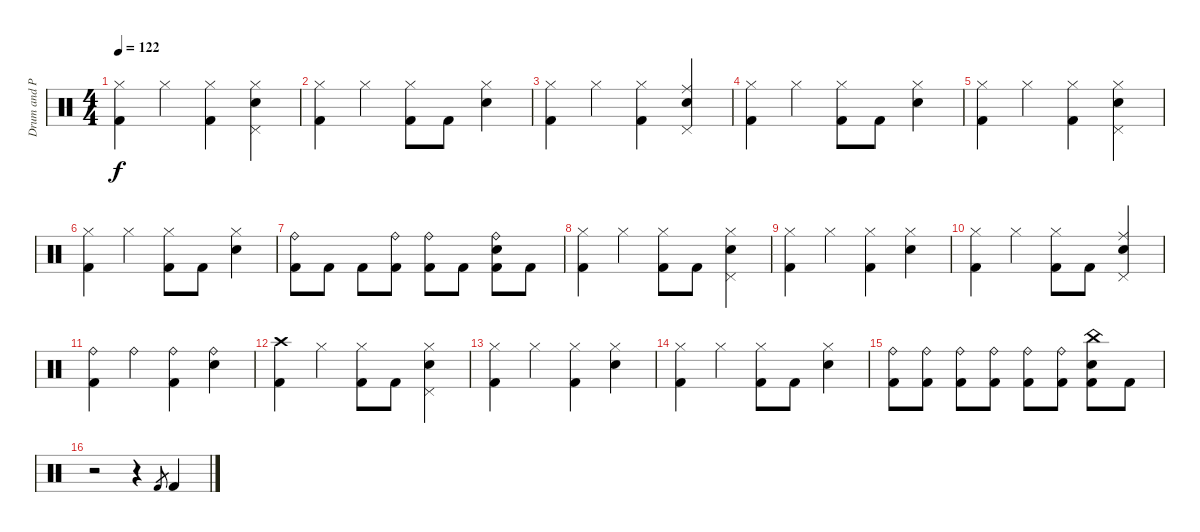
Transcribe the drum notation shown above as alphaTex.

\track ("Drum and Persscusian" "Drum and P") {instrument percussion}
\staff {score}
\articulation defaults
\ts (4 4)
\tempo 122
\clef neutral
\ks c
("Hi-Hat (closed)" "Kick (hit) 2").4{dy f} "Hi-Hat (closed)".4 ("Hi-Hat (closed)" "Kick (hit) 2").4 ("Hi-Hat (closed)" "Pedal Hi-Hat (hit)" "Snare (hit) 2").4 |
("Hi-Hat (closed)" "Kick (hit) 2").4 "Hi-Hat (closed)".4 ("Hi-Hat (closed)" "Kick (hit) 2").8 "Kick (hit) 2".8 ("Hi-Hat (closed)" "Snare (hit) 2").4 |
("Hi-Hat (closed)" "Kick (hit) 2").4 "Hi-Hat (closed)".4 ("Hi-Hat (closed)" "Kick (hit) 2").4 ("Ride (middle)" "Pedal Hi-Hat (hit)" "Snare (hit) 2").4 |
("Hi-Hat (closed)" "Kick (hit) 2").4 "Hi-Hat (closed)".4 ("Hi-Hat (closed)" "Kick (hit) 2").8 "Kick (hit) 2".8 ("Hi-Hat (closed)" "Snare (hit) 2").4 |
("Hi-Hat (closed)" "Kick (hit) 2").4 "Hi-Hat (closed)".4 ("Hi-Hat (closed)" "Kick (hit) 2").4 ("Hi-Hat (closed)" "Pedal Hi-Hat (hit)" "Snare (hit) 2").4 |
("Hi-Hat (closed)" "Kick (hit) 2").4 "Hi-Hat (closed)".4 ("Hi-Hat (closed)" "Kick (hit) 2").8 "Kick (hit) 2".8 ("Hi-Hat (closed)" "Snare (hit) 2").4 |
("Ride (bell)" "Kick (hit) 2").8 "Kick (hit) 2".8 "Kick (hit) 2".8 ("Ride (bell)" "Kick (hit) 2").8 ("Ride (bell)" "Kick (hit) 2").8 "Kick (hit) 2".8 ("Ride (bell)" "Snare (hit) 2" "Kick (hit) 2").8 "Kick (hit) 2".8 |
("Hi-Hat (closed)" "Kick (hit) 2").4 "Hi-Hat (closed)".4 ("Hi-Hat (closed)" "Kick (hit) 2").8 "Kick (hit) 2".8 ("Hi-Hat (closed)" "Pedal Hi-Hat (hit)" "Snare (hit) 2").4 |
("Hi-Hat (closed)" "Kick (hit) 2").4 "Hi-Hat (closed)".4 ("Hi-Hat (closed)" "Kick (hit) 2").4 ("Hi-Hat (closed)" "Snare (hit) 2").4 |
("Hi-Hat (closed)" "Kick (hit) 2").4 "Hi-Hat (closed)".4 ("Hi-Hat (closed)" "Kick (hit) 2").8 "Kick (hit) 2".8 ("Ride (middle)" "Pedal Hi-Hat (hit)" "Snare (hit) 2").4 |
("Ride (bell)" "Kick (hit) 2").4 "Ride (bell)".4 ("Ride (bell)" "Kick (hit) 2").4 ("Ride (bell)" "Snare (hit) 2").4 |
("Crash high (hit)" "Kick (hit) 2").4 "Hi-Hat (closed)".4 ("Hi-Hat (closed)" "Kick (hit) 2").8 "Kick (hit) 2".8 ("Hi-Hat (closed)" "Pedal Hi-Hat (hit)" "Snare (hit) 2").4 |
("Hi-Hat (closed)" "Kick (hit) 2").4 "Hi-Hat (closed)".4 ("Hi-Hat (closed)" "Kick (hit) 2").4 ("Hi-Hat (closed)" "Snare (hit) 2").4 |
("Hi-Hat (closed)" "Kick (hit) 2").4 "Hi-Hat (closed)".4 ("Hi-Hat (closed)" "Kick (hit) 2").8 "Kick (hit) 2".8 ("Hi-Hat (closed)" "Snare (hit) 2").4 |
("Ride (bell)" "Kick (hit) 2").8 ("Ride (bell)" "Kick (hit) 2").8 ("Ride (bell)" "Kick (hit) 2").8 ("Ride (bell)" "Kick (hit) 2").8 ("Ride (bell)" "Kick (hit) 2").8 ("Ride (bell)" "Kick (hit) 2").8 ("China (hit)" "Snare (hit) 2" "Kick (hit) 2").8 "Kick (hit) 2".8 |
r.2 r.4 "Kick (hit) 2".8{gr} "Kick (hit) 2".4
